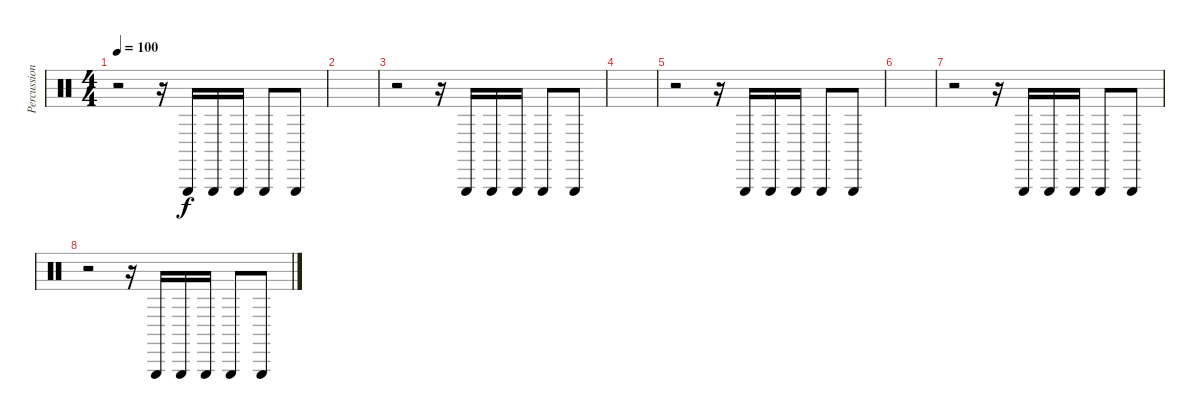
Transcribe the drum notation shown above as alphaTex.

\track ("Percussion" "Percussion") {instrument percussion}
\staff
\articulation defaults
\ts (4 4)
\tempo 100
\clef neutral
\ks c
r.2{dy f} r.16 "Triangle (hit)".16 "Triangle (hit)".16 "Triangle (hit)".16 "Triangle (hit)".8 "Triangle (hit)".8 |
|
r.2 r.16 "Triangle (hit)".16 "Triangle (hit)".16 "Triangle (hit)".16 "Triangle (hit)".8 "Triangle (hit)".8 |
|
r.2 r.16 "Triangle (hit)".16 "Triangle (hit)".16 "Triangle (hit)".16 "Triangle (hit)".8 "Triangle (hit)".8 |
|
r.2 r.16 "Triangle (hit)".16 "Triangle (hit)".16 "Triangle (hit)".16 "Triangle (hit)".8 "Triangle (hit)".8 |
r.2 r.16 "Triangle (hit)".16 "Triangle (hit)".16 "Triangle (hit)".16 "Triangle (hit)".8 "Triangle (hit)".8
